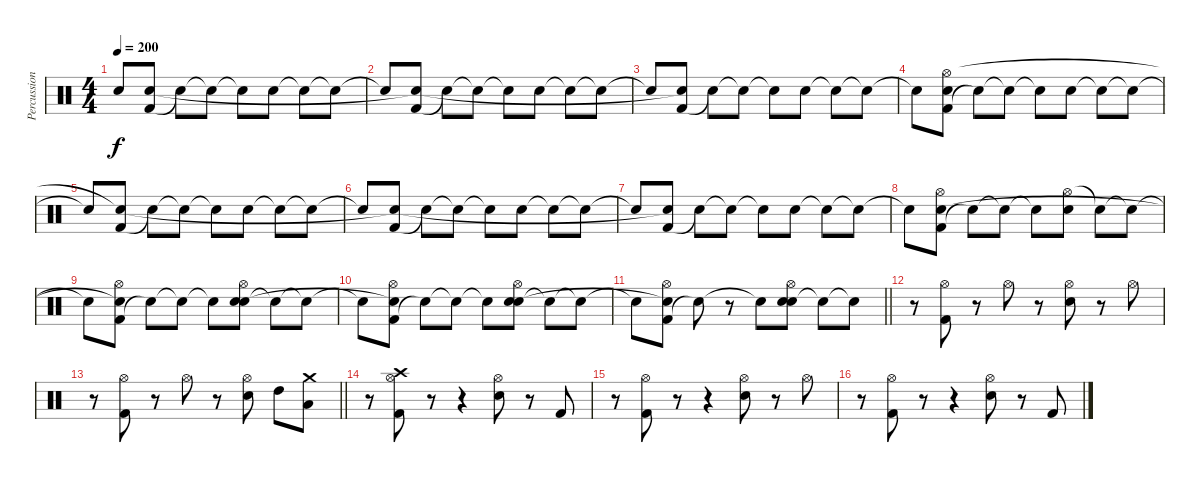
\track ("Percussion" "Percussion") {instrument percussion}
\staff {score}
\articulation defaults
\ts (4 4)
\tempo 200
\clef neutral
\ks c "Snare (hit)"{t}.8{dy f}
("Kick (hit) 2" "Snare (hit)"{t}).8 "Snare (hit)"{t}.8 "Snare (hit)"{t}.8 "Snare (hit)"{t}.8 "Hand Clap (hit)".8 "Hand Clap (hit)"{t}.8 "Snare (hit)"{t}.8 |
"Snare (hit)"{t}.8 ("Kick (hit) 2" "Snare (hit)"{t}).8 "Snare (hit)"{t}.8 "Snare (hit)"{t}.8 "Snare (hit)"{t}.8 "Hand Clap (hit)".8 "Snare (hit)"{t}.8 "Snare (hit)"{t}.8 |
"Snare (hit)"{t}.8 ("Kick (hit) 2" "Snare (hit)"{t}).8 "Snare (hit)"{t}.8 "Snare (hit)"{t}.8 "Snare (hit)"{t}.8 "Hand Clap (hit)".8 "Snare (hit)"{t}.8 "Snare (hit)"{t}.8 |
"Snare (hit)"{t}.8 ("Kick (hit) 2" "Hi-Hat (open)" "Snare (hit)").8 "Snare (hit)"{t}.8 "Snare (hit)"{t}.8 "Snare (hit)"{t}.8 "Hand Clap (hit)".8 "Snare (hit)"{t}.8 "Snare (hit)"{t}.8 |
"Snare (hit)"{t}.8 ("Kick (hit) 2" "Snare (hit)"{t}).8 "Snare (hit)"{t}.8 "Snare (hit)"{t}.8 "Snare (hit)"{t}.8 "Hand Clap (hit)".8 "Snare (hit)"{t}.8 "Snare (hit)"{t}.8 |
"Snare (hit)"{t}.8 ("Kick (hit) 2" "Snare (hit)"{t}).8 "Snare (hit)"{t}.8 "Snare (hit)"{t}.8 "Snare (hit)"{t}.8 "Hand Clap (hit)".8 "Snare (hit)"{t}.8 "Snare (hit)"{t}.8 |
"Snare (hit)"{t}.8 ("Kick (hit) 2" "Snare (hit)"{t}).8 "Snare (hit)"{t}.8 "Snare (hit)"{t}.8 "Snare (hit)"{t}.8 "Hand Clap (hit)".8 "Snare (hit)"{t}.8 "Snare (hit)"{t}.8 |
"Snare (hit)"{t}.8 ("Kick (hit) 2" "Hi-Hat (open)" "Snare (hit)").8 "Snare (hit)"{t}.8 "Snare (hit)"{t}.8 "Snare (hit)"{t}.8 ("Hi-Hat (open)" "Hand Clap (hit)").8 "Snare (hit)"{t}.8 "Snare (hit)"{t}.8 |
"Snare (hit)"{t}.8 ("Kick (hit) 2" "Hi-Hat (open)" "Snare (hit)"{t}).8 "Snare (hit)"{t}.8 "Snare (hit)"{t}.8 "Snare (hit)"{t}.8 ("Electric Snare (hit)" "Hi-Hat (open)" "Hand Clap (hit)").8 "Snare (hit)"{t}.8 "Snare (hit)"{t}.8 |
"Snare (hit)"{t}.8 ("Kick (hit) 2" "Hi-Hat (open)" "Snare (hit)"{t}).8 "Snare (hit)"{t}.8 "Snare (hit)"{t}.8 "Snare (hit)"{t}.8 ("Electric Snare (hit)" "Hi-Hat (open)" "Hand Clap (hit)").8 "Snare (hit)"{t}.8 "Snare (hit)"{t}.8 |
\barLineRight lightlight "Snare (hit)"{t}.8
("Kick (hit) 2" "Hi-Hat (open)" "Snare (hit)"{t}).8 "Snare (hit)"{t}.8 r.8 "Hand Clap (hit)"{t}.8 ("Electric Snare (hit)" "Hi-Hat (open)" "Hand Clap (hit)").8 "Snare (hit)"{t}.8 "Snare (hit)"{t}.8 |
r.8 ("Kick (hit) 2" "Hi-Hat (open)").8 r.8 "Hi-Hat (open)".8 r.8 ("Snare (hit) 2" "Hi-Hat (open)").8 r.8 "Hi-Hat (open)".8 |
\barLineRight lightlight
r.8 ("Kick (hit) 2" "Hi-Hat (open)").8 r.8 "Hi-Hat (open)".8 r.8 ("Snare (hit) 2" "Hi-Hat (open)").8 "High Tom (hit)".8 ("Crash medium (hit)" "Low Floor Tom (hit)").8 |
r.8 ("Kick (hit) 2" "Hi-Hat (open)" "Crash high (hit)").8 r.8 r.4 ("Snare (hit) 2" "Hi-Hat (open)").8 r.8 "Kick (hit) 2".8 |
r.8 ("Kick (hit) 2" "Hi-Hat (open)").8 r.8 r.4 ("Snare (hit) 2" "Hi-Hat (open)").8 r.8 "Hi-Hat (open)".8 |
r.8 ("Kick (hit) 2" "Hi-Hat (open)").8 r.8 r.4 ("Snare (hit) 2" "Hi-Hat (open)").8 r.8 "Kick (hit) 2".8
